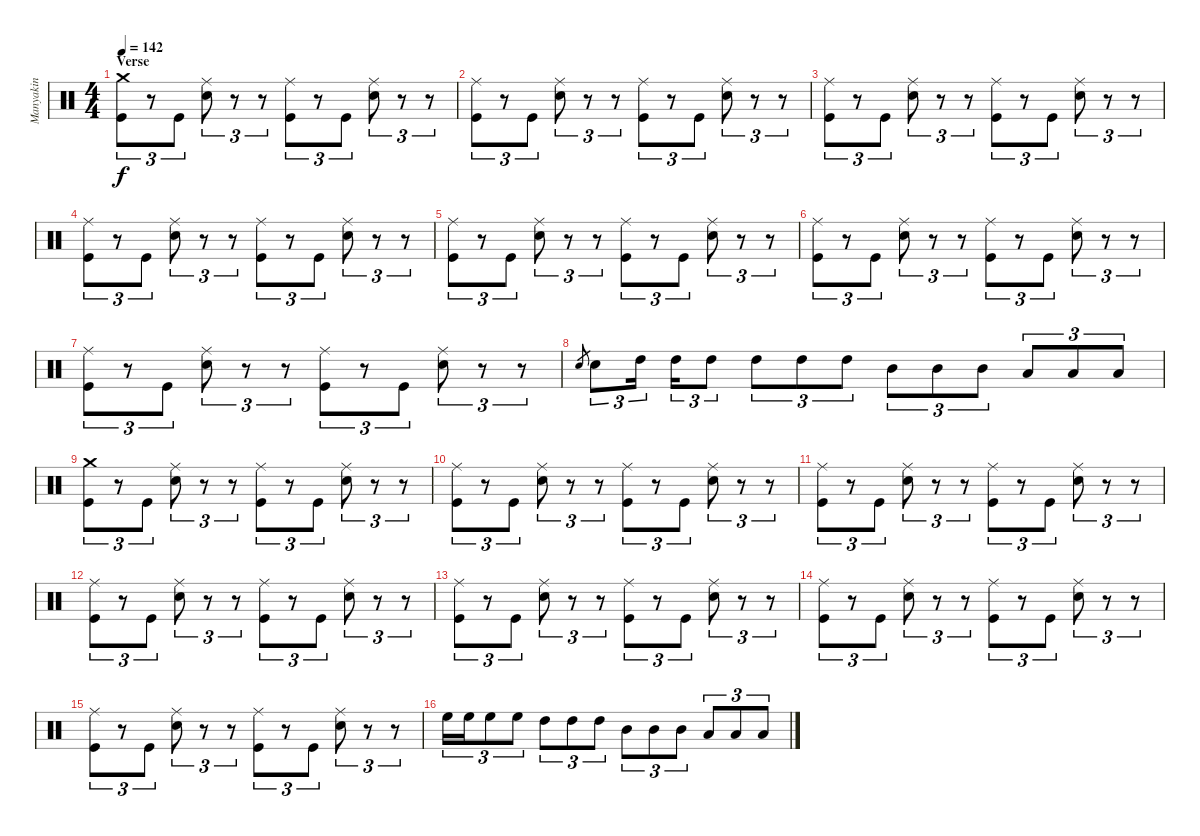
\track ("Manyakin" "Manyakin") {instrument percussion}
\staff {score}
\articulation defaults
\ts (4 4)
\section ("" "Verse")
\tempo 142
\clef neutral
\ks c
("Kick (hit)" "Crash medium (hit)").8{tu (3 2) dy f} r.8{tu (3 2)} "Kick (hit)".8{tu (3 2)} ("Electric Snare (hit)" "Ride (middle)").8{tu (3 2)} r.8{tu (3 2)} r.8{tu (3 2)} ("Kick (hit)" "Ride (middle)").8{tu (3 2)} r.8{tu (3 2)} "Kick (hit)".8{tu (3 2)} ("Electric Snare (hit)" "Ride (middle)").8{tu (3 2)} r.8{tu (3 2)} r.8{tu (3 2)} |
("Kick (hit)" "Ride (middle)").8{tu (3 2)} r.8{tu (3 2)} "Kick (hit)".8{tu (3 2)} ("Electric Snare (hit)" "Ride (middle)").8{tu (3 2)} r.8{tu (3 2)} r.8{tu (3 2)} ("Kick (hit)" "Ride (middle)").8{tu (3 2)} r.8{tu (3 2)} "Kick (hit)".8{tu (3 2)} ("Electric Snare (hit)" "Ride (middle)").8{tu (3 2)} r.8{tu (3 2)} r.8{tu (3 2)} |
("Kick (hit)" "Ride (middle)").8{tu (3 2)} r.8{tu (3 2)} "Kick (hit)".8{tu (3 2)} ("Electric Snare (hit)" "Ride (middle)").8{tu (3 2)} r.8{tu (3 2)} r.8{tu (3 2)} ("Kick (hit)" "Ride (middle)").8{tu (3 2)} r.8{tu (3 2)} "Kick (hit)".8{tu (3 2)} ("Electric Snare (hit)" "Ride (middle)").8{tu (3 2)} r.8{tu (3 2)} r.8{tu (3 2)} |
("Kick (hit)" "Ride (middle)").8{tu (3 2)} r.8{tu (3 2)} "Kick (hit)".8{tu (3 2)} ("Electric Snare (hit)" "Ride (middle)").8{tu (3 2)} r.8{tu (3 2)} r.8{tu (3 2)} ("Kick (hit)" "Ride (middle)").8{tu (3 2)} r.8{tu (3 2)} "Kick (hit)".8{tu (3 2)} ("Electric Snare (hit)" "Ride (middle)").8{tu (3 2)} r.8{tu (3 2)} r.8{tu (3 2)} |
("Kick (hit)" "Ride (middle)").8{tu (3 2)} r.8{tu (3 2)} "Kick (hit)".8{tu (3 2)} ("Electric Snare (hit)" "Ride (middle)").8{tu (3 2)} r.8{tu (3 2)} r.8{tu (3 2)} ("Kick (hit)" "Ride (middle)").8{tu (3 2)} r.8{tu (3 2)} "Kick (hit)".8{tu (3 2)} ("Electric Snare (hit)" "Ride (middle)").8{tu (3 2)} r.8{tu (3 2)} r.8{tu (3 2)} |
("Kick (hit)" "Ride (middle)").8{tu (3 2)} r.8{tu (3 2)} "Kick (hit)".8{tu (3 2)} ("Electric Snare (hit)" "Ride (middle)").8{tu (3 2)} r.8{tu (3 2)} r.8{tu (3 2)} ("Kick (hit)" "Ride (middle)").8{tu (3 2)} r.8{tu (3 2)} "Kick (hit)".8{tu (3 2)} ("Electric Snare (hit)" "Ride (middle)").8{tu (3 2)} r.8{tu (3 2)} r.8{tu (3 2)} |
("Kick (hit)" "Ride (middle)").8{tu (3 2)} r.8{tu (3 2)} "Kick (hit)".8{tu (3 2)} ("Electric Snare (hit)" "Ride (middle)").8{tu (3 2)} r.8{tu (3 2)} r.8{tu (3 2)} ("Kick (hit)" "Ride (middle)").8{tu (3 2)} r.8{tu (3 2)} "Kick (hit)".8{tu (3 2)} ("Electric Snare (hit)" "Ride (middle)").8{tu (3 2)} r.8{tu (3 2)} r.8{tu (3 2)} |
"Electric Snare (hit)".8{gr} "Electric Snare (hit)".8{tu (3 2)} "High Tom (hit)".16{tu (3 2)} "High Tom (hit)".16{tu (3 2)} "High Tom (hit)".8{tu (3 2)} "High Tom (hit)".8{tu (3 2)} "High Tom (hit)".8{tu (3 2)} "High Tom (hit)".8{tu (3 2)} "Mid Tom (hit)".8{tu (3 2)} "Mid Tom (hit)".8{tu (3 2)} "Mid Tom (hit)".8{tu (3 2)} "Low Tom (hit)".8{tu (3 2)} "Low Tom (hit)".8{tu (3 2)} "Low Tom (hit)".8{tu (3 2)} |
("Kick (hit)" "Crash medium (hit)").8{tu (3 2)} r.8{tu (3 2)} "Kick (hit)".8{tu (3 2)} ("Electric Snare (hit)" "Ride (middle)").8{tu (3 2)} r.8{tu (3 2)} r.8{tu (3 2)} ("Kick (hit)" "Ride (middle)").8{tu (3 2)} r.8{tu (3 2)} "Kick (hit)".8{tu (3 2)} ("Electric Snare (hit)" "Ride (middle)").8{tu (3 2)} r.8{tu (3 2)} r.8{tu (3 2)} |
("Kick (hit)" "Ride (middle)").8{tu (3 2)} r.8{tu (3 2)} "Kick (hit)".8{tu (3 2)} ("Electric Snare (hit)" "Ride (middle)").8{tu (3 2)} r.8{tu (3 2)} r.8{tu (3 2)} ("Kick (hit)" "Ride (middle)").8{tu (3 2)} r.8{tu (3 2)} "Kick (hit)".8{tu (3 2)} ("Electric Snare (hit)" "Ride (middle)").8{tu (3 2)} r.8{tu (3 2)} r.8{tu (3 2)} |
("Kick (hit)" "Ride (middle)").8{tu (3 2)} r.8{tu (3 2)} "Kick (hit)".8{tu (3 2)} ("Electric Snare (hit)" "Ride (middle)").8{tu (3 2)} r.8{tu (3 2)} r.8{tu (3 2)} ("Kick (hit)" "Ride (middle)").8{tu (3 2)} r.8{tu (3 2)} "Kick (hit)".8{tu (3 2)} ("Electric Snare (hit)" "Ride (middle)").8{tu (3 2)} r.8{tu (3 2)} r.8{tu (3 2)} |
("Kick (hit)" "Ride (middle)").8{tu (3 2)} r.8{tu (3 2)} "Kick (hit)".8{tu (3 2)} ("Electric Snare (hit)" "Ride (middle)").8{tu (3 2)} r.8{tu (3 2)} r.8{tu (3 2)} ("Kick (hit)" "Ride (middle)").8{tu (3 2)} r.8{tu (3 2)} "Kick (hit)".8{tu (3 2)} ("Electric Snare (hit)" "Ride (middle)").8{tu (3 2)} r.8{tu (3 2)} r.8{tu (3 2)} |
("Kick (hit)" "Ride (middle)").8{tu (3 2)} r.8{tu (3 2)} "Kick (hit)".8{tu (3 2)} ("Electric Snare (hit)" "Ride (middle)").8{tu (3 2)} r.8{tu (3 2)} r.8{tu (3 2)} ("Kick (hit)" "Ride (middle)").8{tu (3 2)} r.8{tu (3 2)} "Kick (hit)".8{tu (3 2)} ("Electric Snare (hit)" "Ride (middle)").8{tu (3 2)} r.8{tu (3 2)} r.8{tu (3 2)} |
("Kick (hit)" "Ride (middle)").8{tu (3 2)} r.8{tu (3 2)} "Kick (hit)".8{tu (3 2)} ("Electric Snare (hit)" "Ride (middle)").8{tu (3 2)} r.8{tu (3 2)} r.8{tu (3 2)} ("Kick (hit)" "Ride (middle)").8{tu (3 2)} r.8{tu (3 2)} "Kick (hit)".8{tu (3 2)} ("Electric Snare (hit)" "Ride (middle)").8{tu (3 2)} r.8{tu (3 2)} r.8{tu (3 2)} |
("Kick (hit)" "Ride (middle)").8{tu (3 2)} r.8{tu (3 2)} "Kick (hit)".8{tu (3 2)} ("Electric Snare (hit)" "Ride (middle)").8{tu (3 2)} r.8{tu (3 2)} r.8{tu (3 2)} ("Kick (hit)" "Ride (middle)").8{tu (3 2)} r.8{tu (3 2)} "Kick (hit)".8{tu (3 2)} ("Electric Snare (hit)" "Ride (middle)").8{tu (3 2)} r.8{tu (3 2)} r.8{tu (3 2)} |
"High Floor Tom (hit)".16{tu (3 2)} "High Floor Tom (hit)".16{tu (3 2)} "High Floor Tom (hit)".8{tu (3 2)} "High Floor Tom (hit)".8{tu (3 2)} "High Tom (hit)".8{tu (3 2)} "High Tom (hit)".8{tu (3 2)} "High Tom (hit)".8{tu (3 2)} "Mid Tom (hit)".8{tu (3 2)} "Mid Tom (hit)".8{tu (3 2)} "Mid Tom (hit)".8{tu (3 2)} "Low Tom (hit)".8{tu (3 2)} "Low Tom (hit)".8{tu (3 2)} "Low Tom (hit)".8{tu (3 2)}
